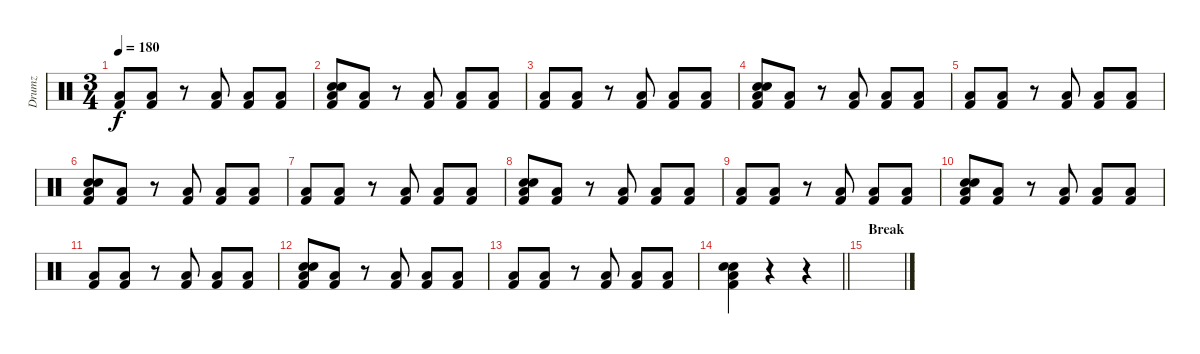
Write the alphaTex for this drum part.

\track ("Drumz" "Drumz") {instrument percussion}
\staff {score}
\articulation defaults
\ts (3 4)
\tempo 180
\clef neutral
\ks c
("Low Floor Tom (hit)" "Kick (hit) 2").8{dy f} ("Low Floor Tom (hit)" "Kick (hit) 2").8 r.8 ("Low Floor Tom (hit)" "Kick (hit) 2").8 ("Low Floor Tom (hit)" "Kick (hit) 2").8 ("Low Floor Tom (hit)" "Kick (hit) 2").8 |
("Low Floor Tom (hit)" "Kick (hit) 2" "Electric Snare (hit)" "Electric Snare (hit)").8 ("Low Floor Tom (hit)" "Kick (hit) 2").8 r.8 ("Low Floor Tom (hit)" "Kick (hit) 2").8 ("Low Floor Tom (hit)" "Kick (hit) 2").8 ("Low Floor Tom (hit)" "Kick (hit) 2").8 |
("Low Floor Tom (hit)" "Kick (hit) 2").8 ("Low Floor Tom (hit)" "Kick (hit) 2").8 r.8 ("Low Floor Tom (hit)" "Kick (hit) 2").8 ("Low Floor Tom (hit)" "Kick (hit) 2").8 ("Low Floor Tom (hit)" "Kick (hit) 2").8 |
("Low Floor Tom (hit)" "Kick (hit) 2" "Electric Snare (hit)" "Electric Snare (hit)").8 ("Low Floor Tom (hit)" "Kick (hit) 2").8 r.8 ("Low Floor Tom (hit)" "Kick (hit) 2").8 ("Low Floor Tom (hit)" "Kick (hit) 2").8 ("Low Floor Tom (hit)" "Kick (hit) 2").8 |
("Low Floor Tom (hit)" "Kick (hit) 2").8 ("Low Floor Tom (hit)" "Kick (hit) 2").8 r.8 ("Low Floor Tom (hit)" "Kick (hit) 2").8 ("Low Floor Tom (hit)" "Kick (hit) 2").8 ("Low Floor Tom (hit)" "Kick (hit) 2").8 |
("Low Floor Tom (hit)" "Kick (hit) 2" "Electric Snare (hit)" "Electric Snare (hit)").8 ("Low Floor Tom (hit)" "Kick (hit) 2").8 r.8 ("Low Floor Tom (hit)" "Kick (hit) 2").8 ("Low Floor Tom (hit)" "Kick (hit) 2").8 ("Low Floor Tom (hit)" "Kick (hit) 2").8 |
("Low Floor Tom (hit)" "Kick (hit) 2").8 ("Low Floor Tom (hit)" "Kick (hit) 2").8 r.8 ("Low Floor Tom (hit)" "Kick (hit) 2").8 ("Low Floor Tom (hit)" "Kick (hit) 2").8 ("Low Floor Tom (hit)" "Kick (hit) 2").8 |
("Low Floor Tom (hit)" "Kick (hit) 2" "Electric Snare (hit)" "Electric Snare (hit)").8 ("Low Floor Tom (hit)" "Kick (hit) 2").8 r.8 ("Low Floor Tom (hit)" "Kick (hit) 2").8 ("Low Floor Tom (hit)" "Kick (hit) 2").8 ("Low Floor Tom (hit)" "Kick (hit) 2").8 |
("Low Floor Tom (hit)" "Kick (hit) 2").8 ("Low Floor Tom (hit)" "Kick (hit) 2").8 r.8 ("Low Floor Tom (hit)" "Kick (hit) 2").8 ("Low Floor Tom (hit)" "Kick (hit) 2").8 ("Low Floor Tom (hit)" "Kick (hit) 2").8 |
("Low Floor Tom (hit)" "Kick (hit) 2" "Electric Snare (hit)" "Electric Snare (hit)").8 ("Low Floor Tom (hit)" "Kick (hit) 2").8 r.8 ("Low Floor Tom (hit)" "Kick (hit) 2").8 ("Low Floor Tom (hit)" "Kick (hit) 2").8 ("Low Floor Tom (hit)" "Kick (hit) 2").8 |
("Low Floor Tom (hit)" "Kick (hit) 2").8 ("Low Floor Tom (hit)" "Kick (hit) 2").8 r.8 ("Low Floor Tom (hit)" "Kick (hit) 2").8 ("Low Floor Tom (hit)" "Kick (hit) 2").8 ("Low Floor Tom (hit)" "Kick (hit) 2").8 |
("Low Floor Tom (hit)" "Kick (hit) 2" "Electric Snare (hit)" "Electric Snare (hit)").8 ("Low Floor Tom (hit)" "Kick (hit) 2").8 r.8 ("Low Floor Tom (hit)" "Kick (hit) 2").8 ("Low Floor Tom (hit)" "Kick (hit) 2").8 ("Low Floor Tom (hit)" "Kick (hit) 2").8 |
("Low Floor Tom (hit)" "Kick (hit) 2").8 ("Low Floor Tom (hit)" "Kick (hit) 2").8 r.8 ("Low Floor Tom (hit)" "Kick (hit) 2").8 ("Low Floor Tom (hit)" "Kick (hit) 2").8 ("Low Floor Tom (hit)" "Kick (hit) 2").8 |
\barLineRight lightlight
("Low Floor Tom (hit)" "Kick (hit) 2" "Electric Snare (hit)" "Electric Snare (hit)").4 r.4 r.4 |
\section ("" "Break")
